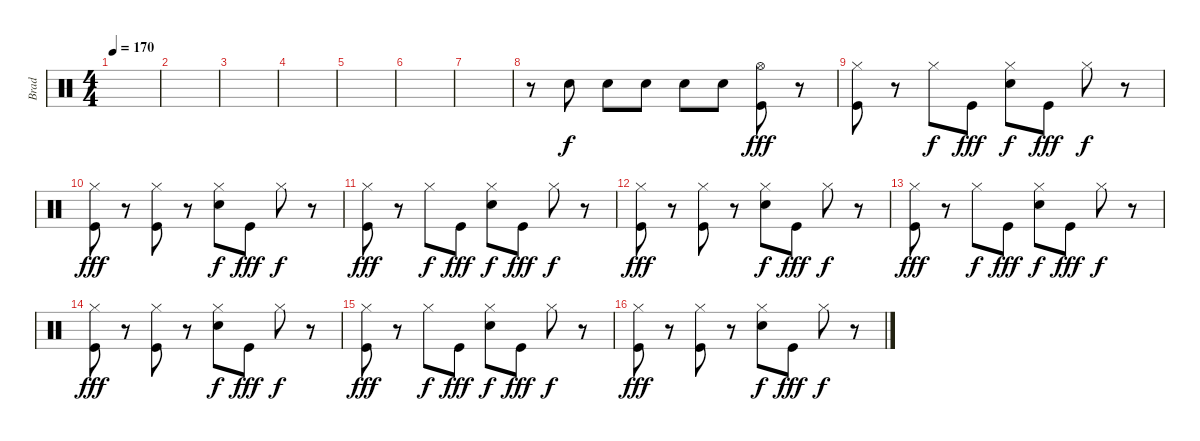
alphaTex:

\track ("Brad" "Brad") {instrument percussion}
\staff {score}
\articulation defaults
\ts (4 4)
\tempo 170
\clef neutral
\ks c
|
|
|
|
|
|
|
r.8 "Electric Snare (hit)".8 "Electric Snare (hit)".8 "Electric Snare (hit)".8 "Electric Snare (hit)".8 "Electric Snare (hit)".8 ("Hi-Hat (open)" "Kick (hit)").8{dy fff} r.8 |
("Hi-Hat (closed)" "Kick (hit)").8 r.8 "Hi-Hat (closed)".8{dy f} "Kick (hit)".8{dy fff} ("Hi-Hat (closed)" "Electric Snare (hit)").8{dy f} "Kick (hit)".8{dy fff} "Hi-Hat (closed)".8{dy f} r.8 |
("Hi-Hat (closed)" "Kick (hit)").8{dy fff} r.8 ("Hi-Hat (closed)" "Kick (hit)").8 r.8 ("Hi-Hat (closed)" "Electric Snare (hit)").8{dy f} "Kick (hit)".8{dy fff} "Hi-Hat (closed)".8{dy f} r.8 |
("Hi-Hat (closed)" "Kick (hit)").8{dy fff} r.8 "Hi-Hat (closed)".8{dy f} "Kick (hit)".8{dy fff} ("Hi-Hat (closed)" "Electric Snare (hit)").8{dy f} "Kick (hit)".8{dy fff} "Hi-Hat (closed)".8{dy f} r.8 |
("Hi-Hat (closed)" "Kick (hit)").8{dy fff} r.8 ("Hi-Hat (closed)" "Kick (hit)").8 r.8 ("Hi-Hat (closed)" "Electric Snare (hit)").8{dy f} "Kick (hit)".8{dy fff} "Hi-Hat (closed)".8{dy f} r.8 |
("Hi-Hat (closed)" "Kick (hit)").8{dy fff} r.8 "Hi-Hat (closed)".8{dy f} "Kick (hit)".8{dy fff} ("Hi-Hat (closed)" "Electric Snare (hit)").8{dy f} "Kick (hit)".8{dy fff} "Hi-Hat (closed)".8{dy f} r.8 |
("Hi-Hat (closed)" "Kick (hit)").8{dy fff} r.8 ("Hi-Hat (closed)" "Kick (hit)").8 r.8 ("Hi-Hat (closed)" "Electric Snare (hit)").8{dy f} "Kick (hit)".8{dy fff} "Hi-Hat (closed)".8{dy f} r.8 |
("Hi-Hat (closed)" "Kick (hit)").8{dy fff} r.8 "Hi-Hat (closed)".8{dy f} "Kick (hit)".8{dy fff} ("Hi-Hat (closed)" "Electric Snare (hit)").8{dy f} "Kick (hit)".8{dy fff} "Hi-Hat (closed)".8{dy f} r.8 |
("Hi-Hat (closed)" "Kick (hit)").8{dy fff} r.8 ("Hi-Hat (closed)" "Kick (hit)").8 r.8 ("Hi-Hat (closed)" "Electric Snare (hit)").8{dy f} "Kick (hit)".8{dy fff} "Hi-Hat (closed)".8{dy f} r.8
